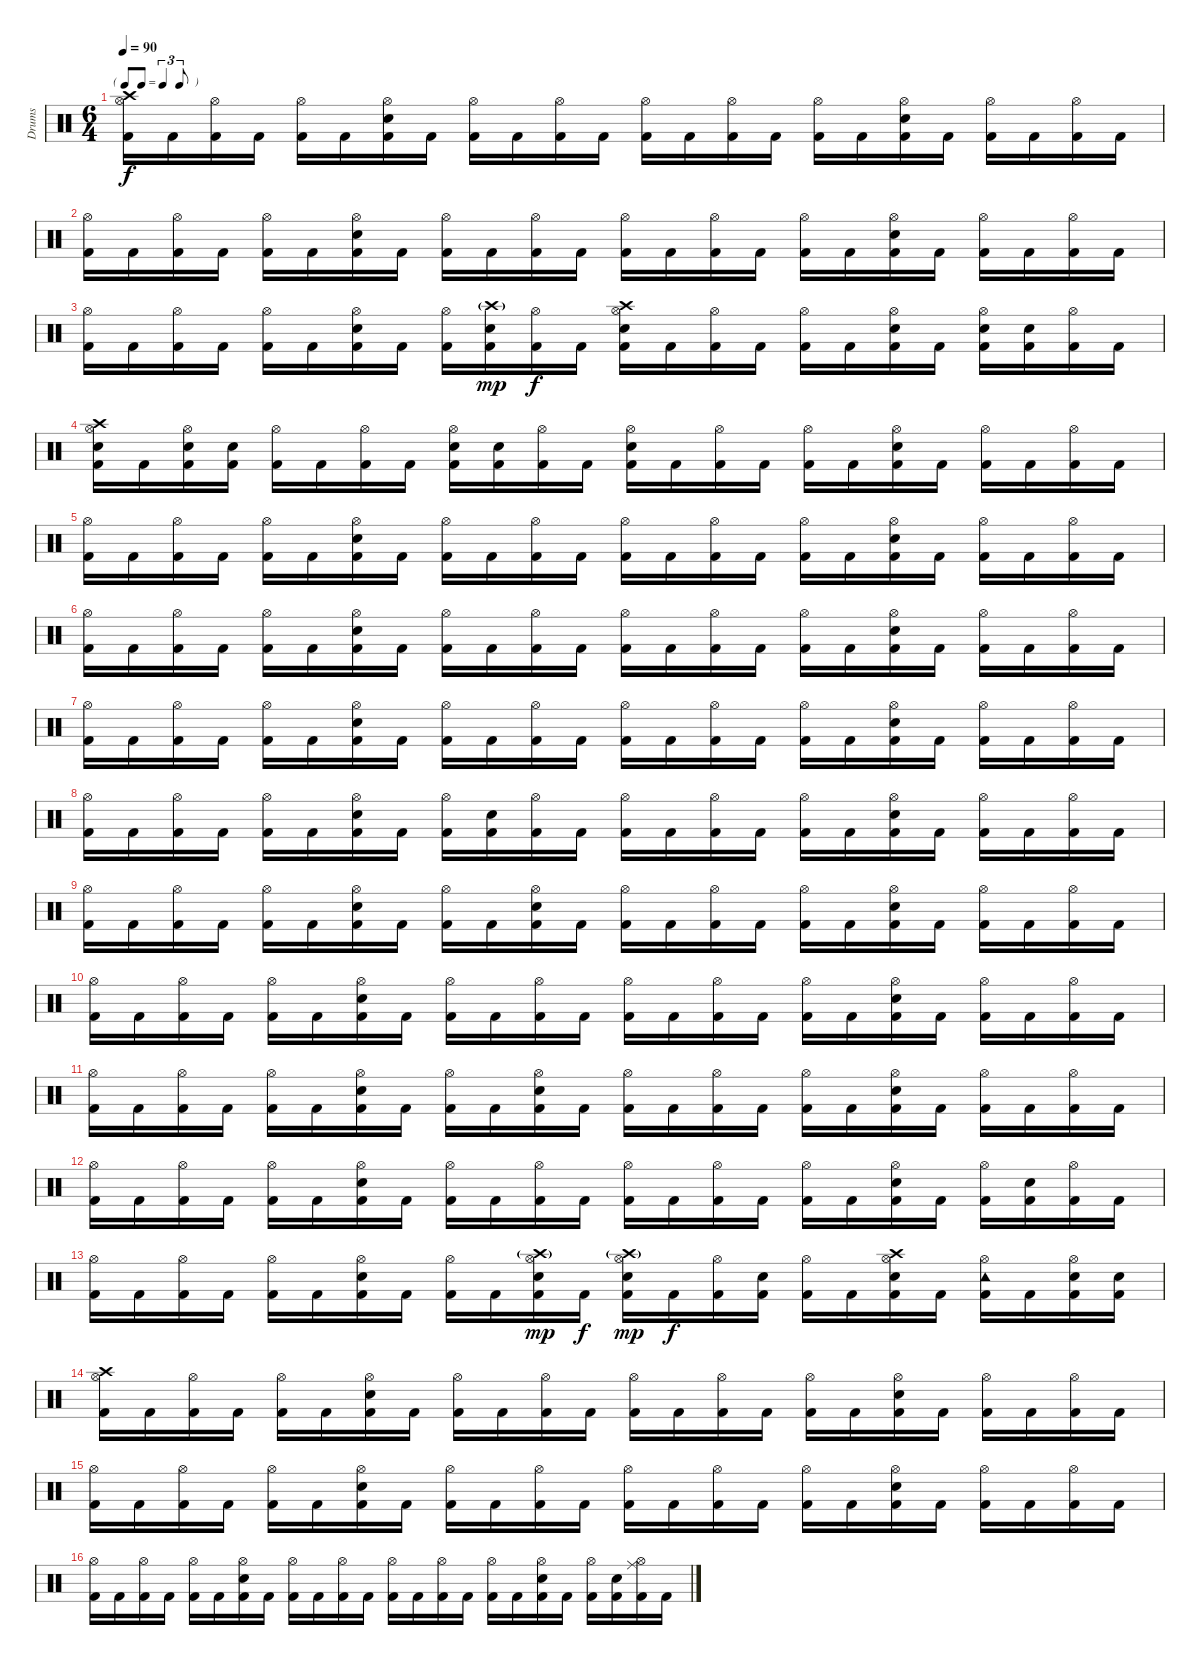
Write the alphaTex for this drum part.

\track ("Drums" "Drums") {instrument percussion}
\staff {score}
\articulation defaults
\ts (6 4)
\tf triplet8th
\tempo 90
\clef neutral
\ks c
("Crash high (hit)" "Hi-Hat (open)" "Kick (hit) 2").16{dy f} "Kick (hit) 2".16 ("Hi-Hat (open)" "Kick (hit) 2").16 "Kick (hit) 2".16 ("Hi-Hat (open)" "Kick (hit) 2").16 "Kick (hit) 2".16 ("Hi-Hat (open)" "Snare (hit) 2" "Kick (hit) 2").16 "Kick (hit) 2".16 ("Hi-Hat (open)" "Kick (hit) 2").16 "Kick (hit) 2".16 ("Hi-Hat (open)" "Kick (hit) 2").16 "Kick (hit) 2".16 ("Hi-Hat (open)" "Kick (hit) 2").16 "Kick (hit) 2".16 ("Hi-Hat (open)" "Kick (hit) 2").16 "Kick (hit) 2".16 ("Hi-Hat (open)" "Kick (hit) 2").16 "Kick (hit) 2".16 ("Hi-Hat (open)" "Snare (hit) 2" "Kick (hit) 2").16 "Kick (hit) 2".16 ("Hi-Hat (open)" "Kick (hit) 2").16 "Kick (hit) 2".16 ("Hi-Hat (open)" "Kick (hit) 2").16 "Kick (hit) 2".16 |
("Hi-Hat (open)" "Kick (hit) 2").16 "Kick (hit) 2".16 ("Hi-Hat (open)" "Kick (hit) 2").16 "Kick (hit) 2".16 ("Hi-Hat (open)" "Kick (hit) 2").16 "Kick (hit) 2".16 ("Hi-Hat (open)" "Snare (hit) 2" "Kick (hit) 2").16 "Kick (hit) 2".16 ("Hi-Hat (open)" "Kick (hit) 2").16 "Kick (hit) 2".16 ("Hi-Hat (open)" "Kick (hit) 2").16 "Kick (hit) 2".16 ("Hi-Hat (open)" "Kick (hit) 2").16 "Kick (hit) 2".16 ("Hi-Hat (open)" "Kick (hit) 2").16 "Kick (hit) 2".16 ("Hi-Hat (open)" "Kick (hit) 2").16 "Kick (hit) 2".16 ("Hi-Hat (open)" "Snare (hit) 2" "Kick (hit) 2").16 "Kick (hit) 2".16 ("Hi-Hat (open)" "Kick (hit) 2").16 "Kick (hit) 2".16 ("Hi-Hat (open)" "Kick (hit) 2").16 "Kick (hit) 2".16 |
("Hi-Hat (open)" "Kick (hit) 2").16 "Kick (hit) 2".16 ("Hi-Hat (open)" "Kick (hit) 2").16 "Kick (hit) 2".16 ("Hi-Hat (open)" "Kick (hit) 2").16 "Kick (hit) 2".16 ("Hi-Hat (open)" "Snare (hit) 2" "Kick (hit) 2").16 "Kick (hit) 2".16 ("Hi-Hat (open)" "Kick (hit) 2").16 ("Crash high (hit)"{g} "Snare (hit) 2" "Kick (hit) 2").16{dy mp} ("Hi-Hat (open)" "Kick (hit) 2").16{dy f} "Kick (hit) 2".16 ("Crash high (hit)" "Hi-Hat (open)" "Snare (hit) 2" "Kick (hit) 2").16 "Kick (hit) 2".16 ("Hi-Hat (open)" "Kick (hit) 2").16 "Kick (hit) 2".16 ("Hi-Hat (open)" "Kick (hit) 2").16 "Kick (hit) 2".16 ("Hi-Hat (open)" "Snare (hit) 2" "Kick (hit) 2").16 "Kick (hit) 2".16 ("Hi-Hat (open)" "Snare (hit) 2" "Kick (hit) 2").16 ("Snare (hit) 2" "Kick (hit) 2").16 ("Hi-Hat (open)" "Kick (hit) 2").16 "Kick (hit) 2".16 |
("Crash high (hit)" "Hi-Hat (open)" "Snare (hit) 2" "Kick (hit) 2").16 "Kick (hit) 2".16 ("Hi-Hat (open)" "Snare (hit) 2" "Kick (hit) 2").16 ("Snare (hit) 2" "Kick (hit) 2").16 ("Hi-Hat (open)" "Kick (hit) 2").16 "Kick (hit) 2".16 ("Hi-Hat (open)" "Kick (hit) 2").16 "Kick (hit) 2".16 ("Hi-Hat (open)" "Snare (hit) 2" "Kick (hit) 2").16 ("Snare (hit) 2" "Kick (hit) 2").16 ("Hi-Hat (open)" "Kick (hit) 2").16 "Kick (hit) 2".16 ("Hi-Hat (open)" "Snare (hit) 2" "Kick (hit) 2").16 "Kick (hit) 2".16 ("Hi-Hat (open)" "Kick (hit) 2").16 "Kick (hit) 2".16 ("Hi-Hat (open)" "Kick (hit) 2").16 "Kick (hit) 2".16 ("Hi-Hat (open)" "Snare (hit) 2" "Kick (hit) 2").16 "Kick (hit) 2".16 ("Hi-Hat (open)" "Kick (hit) 2").16 "Kick (hit) 2".16 ("Hi-Hat (open)" "Kick (hit) 2").16 "Kick (hit) 2".16 |
("Hi-Hat (open)" "Kick (hit) 2").16 "Kick (hit) 2".16 ("Hi-Hat (open)" "Kick (hit) 2").16 "Kick (hit) 2".16 ("Hi-Hat (open)" "Kick (hit) 2").16 "Kick (hit) 2".16 ("Hi-Hat (open)" "Snare (hit) 2" "Kick (hit) 2").16 "Kick (hit) 2".16 ("Hi-Hat (open)" "Kick (hit) 2").16 "Kick (hit) 2".16 ("Hi-Hat (open)" "Kick (hit) 2").16 "Kick (hit) 2".16 ("Hi-Hat (open)" "Kick (hit) 2").16 "Kick (hit) 2".16 ("Hi-Hat (open)" "Kick (hit) 2").16 "Kick (hit) 2".16 ("Hi-Hat (open)" "Kick (hit) 2").16 "Kick (hit) 2".16 ("Hi-Hat (open)" "Snare (hit) 2" "Kick (hit) 2").16 "Kick (hit) 2".16 ("Hi-Hat (open)" "Kick (hit) 2").16 "Kick (hit) 2".16 ("Hi-Hat (open)" "Kick (hit) 2").16 "Kick (hit) 2".16 |
("Hi-Hat (open)" "Kick (hit) 2").16 "Kick (hit) 2".16 ("Hi-Hat (open)" "Kick (hit) 2").16 "Kick (hit) 2".16 ("Hi-Hat (open)" "Kick (hit) 2").16 "Kick (hit) 2".16 ("Hi-Hat (open)" "Snare (hit) 2" "Kick (hit) 2").16 "Kick (hit) 2".16 ("Hi-Hat (open)" "Kick (hit) 2").16 "Kick (hit) 2".16 ("Hi-Hat (open)" "Kick (hit) 2").16 "Kick (hit) 2".16 ("Hi-Hat (open)" "Kick (hit) 2").16 "Kick (hit) 2".16 ("Hi-Hat (open)" "Kick (hit) 2").16 "Kick (hit) 2".16 ("Hi-Hat (open)" "Kick (hit) 2").16 "Kick (hit) 2".16 ("Hi-Hat (open)" "Snare (hit) 2" "Kick (hit) 2").16 "Kick (hit) 2".16 ("Hi-Hat (open)" "Kick (hit) 2").16 "Kick (hit) 2".16 ("Hi-Hat (open)" "Kick (hit) 2").16 "Kick (hit) 2".16 |
("Hi-Hat (open)" "Kick (hit) 2").16 "Kick (hit) 2".16 ("Hi-Hat (open)" "Kick (hit) 2").16 "Kick (hit) 2".16 ("Hi-Hat (open)" "Kick (hit) 2").16 "Kick (hit) 2".16 ("Hi-Hat (open)" "Snare (hit) 2" "Kick (hit) 2").16 "Kick (hit) 2".16 ("Hi-Hat (open)" "Kick (hit) 2").16 "Kick (hit) 2".16 ("Hi-Hat (open)" "Kick (hit) 2").16 "Kick (hit) 2".16 ("Hi-Hat (open)" "Kick (hit) 2").16 "Kick (hit) 2".16 ("Hi-Hat (open)" "Kick (hit) 2").16 "Kick (hit) 2".16 ("Hi-Hat (open)" "Kick (hit) 2").16 "Kick (hit) 2".16 ("Hi-Hat (open)" "Snare (hit) 2" "Kick (hit) 2").16 "Kick (hit) 2".16 ("Hi-Hat (open)" "Kick (hit) 2").16 "Kick (hit) 2".16 ("Hi-Hat (open)" "Kick (hit) 2").16 "Kick (hit) 2".16 |
("Hi-Hat (open)" "Kick (hit) 2").16 "Kick (hit) 2".16 ("Hi-Hat (open)" "Kick (hit) 2").16 "Kick (hit) 2".16 ("Hi-Hat (open)" "Kick (hit) 2").16 "Kick (hit) 2".16 ("Hi-Hat (open)" "Snare (hit) 2" "Kick (hit) 2").16 "Kick (hit) 2".16 ("Hi-Hat (open)" "Kick (hit) 2").16 ("Snare (hit) 2" "Kick (hit) 2").16 ("Hi-Hat (open)" "Kick (hit) 2").16 "Kick (hit) 2".16 ("Hi-Hat (open)" "Kick (hit) 2").16 "Kick (hit) 2".16 ("Hi-Hat (open)" "Kick (hit) 2").16 "Kick (hit) 2".16 ("Hi-Hat (open)" "Kick (hit) 2").16 "Kick (hit) 2".16 ("Hi-Hat (open)" "Snare (hit) 2" "Kick (hit) 2").16 "Kick (hit) 2".16 ("Hi-Hat (open)" "Kick (hit) 2").16 "Kick (hit) 2".16 ("Hi-Hat (open)" "Kick (hit) 2").16 "Kick (hit) 2".16 |
("Hi-Hat (open)" "Kick (hit) 2").16 "Kick (hit) 2".16 ("Hi-Hat (open)" "Kick (hit) 2").16 "Kick (hit) 2".16 ("Hi-Hat (open)" "Kick (hit) 2").16 "Kick (hit) 2".16 ("Hi-Hat (open)" "Snare (hit) 2" "Kick (hit) 2").16 "Kick (hit) 2".16 ("Hi-Hat (open)" "Kick (hit) 2").16 "Kick (hit) 2".16 ("Hi-Hat (open)" "Snare (hit) 2" "Kick (hit) 2").16 "Kick (hit) 2".16 ("Hi-Hat (open)" "Kick (hit) 2").16 "Kick (hit) 2".16 ("Hi-Hat (open)" "Kick (hit) 2").16 "Kick (hit) 2".16 ("Hi-Hat (open)" "Kick (hit) 2").16 "Kick (hit) 2".16 ("Hi-Hat (open)" "Snare (hit) 2" "Kick (hit) 2").16 "Kick (hit) 2".16 ("Hi-Hat (open)" "Kick (hit) 2").16 "Kick (hit) 2".16 ("Hi-Hat (open)" "Kick (hit) 2").16 "Kick (hit) 2".16 |
("Hi-Hat (open)" "Kick (hit) 2").16 "Kick (hit) 2".16 ("Hi-Hat (open)" "Kick (hit) 2").16 "Kick (hit) 2".16 ("Hi-Hat (open)" "Kick (hit) 2").16 "Kick (hit) 2".16 ("Hi-Hat (open)" "Snare (hit) 2" "Kick (hit) 2").16 "Kick (hit) 2".16 ("Hi-Hat (open)" "Kick (hit) 2").16 "Kick (hit) 2".16 ("Hi-Hat (open)" "Kick (hit) 2").16 "Kick (hit) 2".16 ("Hi-Hat (open)" "Kick (hit) 2").16 "Kick (hit) 2".16 ("Hi-Hat (open)" "Kick (hit) 2").16 "Kick (hit) 2".16 ("Hi-Hat (open)" "Kick (hit) 2").16 "Kick (hit) 2".16 ("Hi-Hat (open)" "Snare (hit) 2" "Kick (hit) 2").16 "Kick (hit) 2".16 ("Hi-Hat (open)" "Kick (hit) 2").16 "Kick (hit) 2".16 ("Hi-Hat (open)" "Kick (hit) 2").16 "Kick (hit) 2".16 |
("Hi-Hat (open)" "Kick (hit) 2").16 "Kick (hit) 2".16 ("Hi-Hat (open)" "Kick (hit) 2").16 "Kick (hit) 2".16 ("Hi-Hat (open)" "Kick (hit) 2").16 "Kick (hit) 2".16 ("Hi-Hat (open)" "Snare (hit) 2" "Kick (hit) 2").16 "Kick (hit) 2".16 ("Hi-Hat (open)" "Kick (hit) 2").16 "Kick (hit) 2".16 ("Hi-Hat (open)" "Snare (hit) 2" "Kick (hit) 2").16 "Kick (hit) 2".16 ("Hi-Hat (open)" "Kick (hit) 2").16 "Kick (hit) 2".16 ("Hi-Hat (open)" "Kick (hit) 2").16 "Kick (hit) 2".16 ("Hi-Hat (open)" "Kick (hit) 2").16 "Kick (hit) 2".16 ("Hi-Hat (open)" "Snare (hit) 2" "Kick (hit) 2").16 "Kick (hit) 2".16 ("Hi-Hat (open)" "Kick (hit) 2").16 "Kick (hit) 2".16 ("Hi-Hat (open)" "Kick (hit) 2").16 "Kick (hit) 2".16 |
("Hi-Hat (open)" "Kick (hit) 2").16 "Kick (hit) 2".16 ("Hi-Hat (open)" "Kick (hit) 2").16 "Kick (hit) 2".16 ("Hi-Hat (open)" "Kick (hit) 2").16 "Kick (hit) 2".16 ("Hi-Hat (open)" "Snare (hit) 2" "Kick (hit) 2").16 "Kick (hit) 2".16 ("Hi-Hat (open)" "Kick (hit) 2").16 "Kick (hit) 2".16 ("Hi-Hat (open)" "Kick (hit) 2").16 "Kick (hit) 2".16 ("Hi-Hat (open)" "Kick (hit) 2").16 "Kick (hit) 2".16 ("Hi-Hat (open)" "Kick (hit) 2").16 "Kick (hit) 2".16 ("Hi-Hat (open)" "Kick (hit) 2").16 "Kick (hit) 2".16 ("Hi-Hat (open)" "Snare (hit) 2" "Kick (hit) 2").16 "Kick (hit) 2".16 ("Hi-Hat (open)" "Kick (hit) 2").16 ("Snare (hit) 2" "Kick (hit) 2").16 ("Hi-Hat (open)" "Kick (hit) 2").16 "Kick (hit) 2".16 |
("Hi-Hat (open)" "Kick (hit) 2").16 "Kick (hit) 2".16 ("Hi-Hat (open)" "Kick (hit) 2").16 "Kick (hit) 2".16 ("Hi-Hat (open)" "Kick (hit) 2").16 "Kick (hit) 2".16 ("Hi-Hat (open)" "Snare (hit) 2" "Kick (hit) 2").16 "Kick (hit) 2".16 ("Hi-Hat (open)" "Kick (hit) 2").16 "Kick (hit) 2".16 ("Crash high (hit)"{g} "Hi-Hat (open)" "Snare (hit) 2" "Kick (hit) 2").16{dy mp} "Kick (hit) 2".16{dy f} ("Crash high (hit)"{g} "Hi-Hat (open)" "Snare (hit) 2" "Kick (hit) 2").16{dy mp} "Kick (hit) 2".16{dy f} ("Hi-Hat (open)" "Kick (hit) 2").16 ("Snare (hit) 2" "Kick (hit) 2").16 ("Hi-Hat (open)" "Kick (hit) 2").16 "Kick (hit) 2".16 ("Crash high (hit)" "Hi-Hat (open)" "Snare (hit) 2" "Kick (hit) 2").16 "Kick (hit) 2".16 ("Tambourine (hit)" "Hi-Hat (open)" "Kick (hit) 2").16 "Kick (hit) 2".16 ("Hi-Hat (open)" "Snare (hit) 2" "Kick (hit) 2").16 ("Snare (hit) 2" "Kick (hit) 2").16 |
("Crash high (hit)" "Hi-Hat (open)" "Kick (hit) 2").16 "Kick (hit) 2".16 ("Hi-Hat (open)" "Kick (hit) 2").16 "Kick (hit) 2".16 ("Hi-Hat (open)" "Kick (hit) 2").16 "Kick (hit) 2".16 ("Hi-Hat (open)" "Snare (hit) 2" "Kick (hit) 2").16 "Kick (hit) 2".16 ("Hi-Hat (open)" "Kick (hit) 2").16 "Kick (hit) 2".16 ("Hi-Hat (open)" "Kick (hit) 2").16 "Kick (hit) 2".16 ("Hi-Hat (open)" "Kick (hit) 2").16 "Kick (hit) 2".16 ("Hi-Hat (open)" "Kick (hit) 2").16 "Kick (hit) 2".16 ("Hi-Hat (open)" "Kick (hit) 2").16 "Kick (hit) 2".16 ("Hi-Hat (open)" "Snare (hit) 2" "Kick (hit) 2").16 "Kick (hit) 2".16 ("Hi-Hat (open)" "Kick (hit) 2").16 "Kick (hit) 2".16 ("Hi-Hat (open)" "Kick (hit) 2").16 "Kick (hit) 2".16 |
("Hi-Hat (open)" "Kick (hit) 2").16 "Kick (hit) 2".16 ("Hi-Hat (open)" "Kick (hit) 2").16 "Kick (hit) 2".16 ("Hi-Hat (open)" "Kick (hit) 2").16 "Kick (hit) 2".16 ("Hi-Hat (open)" "Snare (hit) 2" "Kick (hit) 2").16 "Kick (hit) 2".16 ("Hi-Hat (open)" "Kick (hit) 2").16 "Kick (hit) 2".16 ("Hi-Hat (open)" "Kick (hit) 2").16 "Kick (hit) 2".16 ("Hi-Hat (open)" "Kick (hit) 2").16 "Kick (hit) 2".16 ("Hi-Hat (open)" "Kick (hit) 2").16 "Kick (hit) 2".16 ("Hi-Hat (open)" "Kick (hit) 2").16 "Kick (hit) 2".16 ("Hi-Hat (open)" "Snare (hit) 2" "Kick (hit) 2").16 "Kick (hit) 2".16 ("Hi-Hat (open)" "Kick (hit) 2").16 "Kick (hit) 2".16 ("Hi-Hat (open)" "Kick (hit) 2").16 "Kick (hit) 2".16 |
("Hi-Hat (open)" "Kick (hit) 2").16 "Kick (hit) 2".16 ("Hi-Hat (open)" "Kick (hit) 2").16 "Kick (hit) 2".16 ("Hi-Hat (open)" "Kick (hit) 2").16 "Kick (hit) 2".16 ("Hi-Hat (open)" "Snare (hit) 2" "Kick (hit) 2").16 "Kick (hit) 2".16 ("Hi-Hat (open)" "Kick (hit) 2").16 "Kick (hit) 2".16 ("Hi-Hat (open)" "Kick (hit) 2").16 "Kick (hit) 2".16 ("Hi-Hat (open)" "Kick (hit) 2").16 "Kick (hit) 2".16 ("Hi-Hat (open)" "Kick (hit) 2").16 "Kick (hit) 2".16 ("Hi-Hat (open)" "Kick (hit) 2").16 "Kick (hit) 2".16 ("Hi-Hat (open)" "Snare (hit) 2" "Kick (hit) 2").16 "Kick (hit) 2".16 ("Hi-Hat (open)" "Kick (hit) 2").16 ("Snare (hit) 2" "Kick (hit) 2").16 ("Ride (middle)" "Hi-Hat (open)" "Kick (hit) 2").16 "Kick (hit) 2".16
